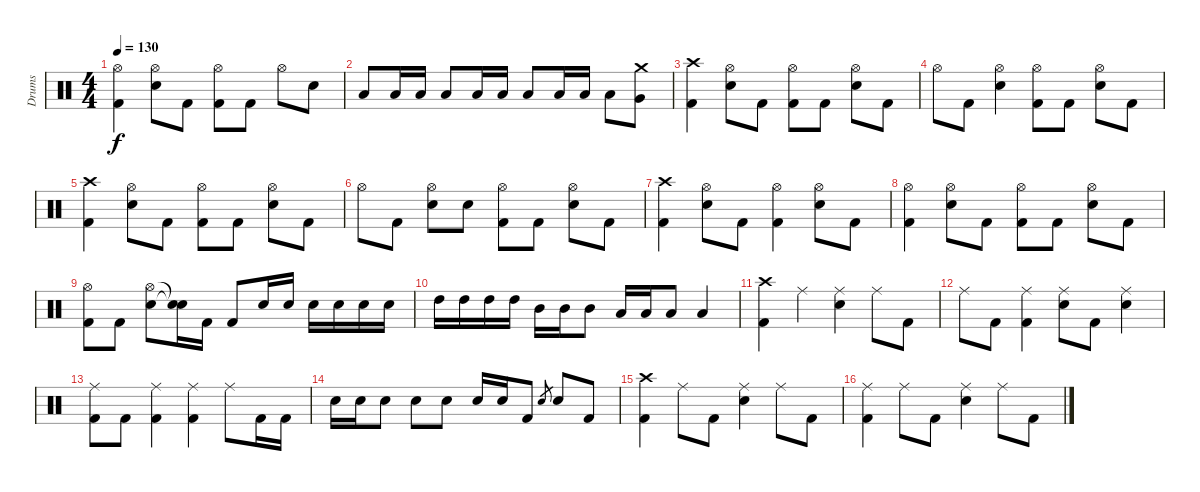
\track ("Drums" "Drums") {instrument percussion}
\staff {score}
\articulation defaults
\ts (4 4)
\tempo 130
\clef neutral
\ks c
("Hi-Hat (open)" "Kick (hit) 2").4{dy f} ("Hi-Hat (open)" "Electric Snare (hit)").8 "Kick (hit) 2".8 ("Hi-Hat (open)" "Kick (hit) 2").8 "Kick (hit) 2".8 "Hi-Hat (open)".8 "Electric Snare (hit)".8 |
"Low Tom (hit)".8 "Low Tom (hit)".16 "Low Tom (hit)".16 "Low Tom (hit)".8 "Low Tom (hit)".16 "Low Tom (hit)".16 "Low Tom (hit)".8 "Low Tom (hit)".16 "Low Tom (hit)".16 "Low Tom (hit)".8 ("Crash medium (hit)" "Very Low Tom (hit)").8 |
("Crash high (hit)" "Kick (hit) 2").4 ("Hi-Hat (open)" "Electric Snare (hit)").8 "Kick (hit) 2".8 ("Hi-Hat (open)" "Kick (hit) 2").8 "Kick (hit) 2".8 ("Hi-Hat (open)" "Electric Snare (hit)").8 "Kick (hit) 2".8 |
"Hi-Hat (open)".8 "Kick (hit) 2".8 ("Hi-Hat (open)" "Electric Snare (hit)").4 ("Hi-Hat (open)" "Kick (hit) 2").8 "Kick (hit) 2".8 ("Hi-Hat (open)" "Electric Snare (hit)").8 "Kick (hit) 2".8 |
("Crash high (hit)" "Kick (hit) 2").4 ("Hi-Hat (open)" "Electric Snare (hit)").8 "Kick (hit) 2".8 ("Hi-Hat (open)" "Kick (hit) 2").8 "Kick (hit) 2".8 ("Hi-Hat (open)" "Electric Snare (hit)").8 "Kick (hit) 2".8 |
"Hi-Hat (open)".8 "Kick (hit) 2".8 ("Hi-Hat (open)" "Electric Snare (hit)").8 "Electric Snare (hit)".8 ("Hi-Hat (open)" "Kick (hit) 2").8 "Kick (hit) 2".8 ("Hi-Hat (open)" "Electric Snare (hit)").8 "Kick (hit) 2".8 |
("Crash high (hit)" "Kick (hit) 2").4 ("Hi-Hat (open)" "Electric Snare (hit)").8 "Kick (hit) 2".8 ("Hi-Hat (open)" "Kick (hit) 2").4 ("Hi-Hat (open)" "Electric Snare (hit)").8 "Kick (hit) 2".8 |
("Hi-Hat (open)" "Kick (hit) 2").4 ("Hi-Hat (open)" "Electric Snare (hit)").8 "Kick (hit) 2".8 ("Hi-Hat (open)" "Kick (hit) 2").8 "Kick (hit) 2".8 ("Hi-Hat (open)" "Electric Snare (hit)").8 "Kick (hit) 2".8 |
("Hi-Hat (open)" "Kick (hit) 2").8 "Kick (hit) 2".8 ("Hi-Hat (open)" "Electric Snare (hit)").8 ("Snare (hit)"{t} "Snare (hit)"{t}).16 "Kick (hit) 2".16 "Kick (hit) 2".8 "Electric Snare (hit)".16 "Electric Snare (hit)".16 "Electric Snare (hit)".16 "Electric Snare (hit)".16 "Electric Snare (hit)".16 "Electric Snare (hit)".16 |
"High Tom (hit)".16 "High Tom (hit)".16 "High Tom (hit)".16 "High Tom (hit)".16 "Mid Tom (hit)".16 "Mid Tom (hit)".16 "Mid Tom (hit)".8 "Low Tom (hit)".16 "Low Tom (hit)".16 "Low Tom (hit)".8 "Low Tom (hit)".4 |
("Crash high (hit)" "Kick (hit) 2").4 "Ride (middle)".4 ("Ride (middle)" "Electric Snare (hit)").4 "Ride (middle)".8 "Kick (hit) 2".8 |
"Ride (middle)".8 "Kick (hit) 2".8 ("Ride (middle)" "Kick (hit) 2").4 ("Ride (middle)" "Electric Snare (hit)").8 "Kick (hit) 2".8 ("Ride (middle)" "Electric Snare (hit)").4 |
("Ride (middle)" "Kick (hit) 2").8 "Kick (hit) 2".8 ("Ride (middle)" "Kick (hit) 2").4 ("Ride (middle)" "Kick (hit) 2").4 "Ride (middle)".8 "Kick (hit) 2".16 "Kick (hit) 2".16 |
"Electric Snare (hit)".16 "Electric Snare (hit)".16 "Electric Snare (hit)".8 "Electric Snare (hit)".8 "Electric Snare (hit)".8 "Electric Snare (hit)".16 "Electric Snare (hit)".16 "Kick (hit) 2".8 "Electric Snare (hit)".8{gr} "Electric Snare (hit)".8 "Kick (hit) 2".8 |
("Crash high (hit)" "Kick (hit) 2").4 "Ride (middle)".8 "Kick (hit) 2".8 ("Ride (middle)" "Electric Snare (hit)").4 "Ride (middle)".8 "Kick (hit) 2".8 |
("Ride (middle)" "Kick (hit) 2").4 "Ride (middle)".8 "Kick (hit) 2".8 ("Ride (middle)" "Electric Snare (hit)").4 "Ride (middle)".8 "Kick (hit) 2".8
